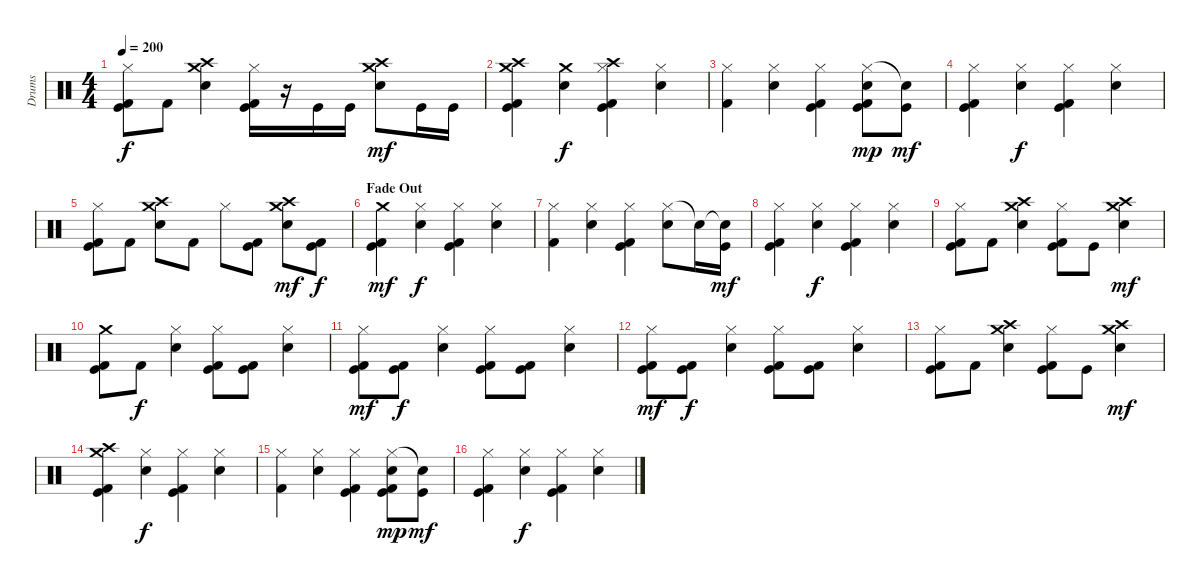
\track ("Drums" "Drums") {instrument percussion}
\staff {score}
\articulation defaults
\ts (4 4)
\tempo 200
\clef neutral
\ks c
("Hi-Hat (closed)" "Kick (hit)" "Kick (hit) 2").8{dy f} "Kick (hit) 2".8 ("Crash high (hit)" "Crash medium (hit)" "Snare (hit) 2").4 ("Hi-Hat (closed)" "Kick (hit)" "Kick (hit) 2").16 r.16 "Kick (hit)".16 "Kick (hit)".16 ("Crash high (hit)" "Crash medium (hit)" "Snare (hit) 2").8{dy mf} "Kick (hit)".16 "Kick (hit)".16 |
("Crash high (hit)" "Crash medium (hit)" "Kick (hit)" "Kick (hit) 2").4 ("Crash medium (hit)" "Snare (hit) 2").4{dy f} ("Crash high (hit)" "Hi-Hat (closed)" "Kick (hit)" "Kick (hit) 2").4 ("Hi-Hat (closed)" "Snare (hit) 2").4 |
("Hi-Hat (closed)" "Kick (hit) 2").4 ("Hi-Hat (closed)" "Snare (hit) 2").4 ("Hi-Hat (closed)" "Kick (hit)" "Kick (hit) 2").4 ("Hi-Hat (closed)" "Snare (hit) 2" "Kick (hit)" "Kick (hit) 2").8{dy mp} ("Snare (hit)"{t} "Kick (hit)").8{dy mf} |
("Hi-Hat (closed)" "Kick (hit)" "Kick (hit) 2").4 ("Hi-Hat (closed)" "Snare (hit) 2").4{dy f} ("Hi-Hat (closed)" "Kick (hit)" "Kick (hit) 2").4 ("Hi-Hat (closed)" "Snare (hit) 2").4 |
("Hi-Hat (closed)" "Kick (hit)" "Kick (hit) 2").8 "Kick (hit) 2".8 ("Crash high (hit)" "Crash medium (hit)" "Snare (hit) 2").8 "Kick (hit) 2".8 "Hi-Hat (closed)".8 ("Kick (hit)" "Kick (hit) 2").8 ("Crash high (hit)" "Crash medium (hit)" "Snare (hit) 2").8{dy mf} ("Kick (hit)" "Kick (hit) 2").8{dy f} |
\section ("" "Fade Out")
("Crash medium (hit)" "Kick (hit)" "Kick (hit) 2").4{dy mf volume 14} ("Hi-Hat (closed)" "Snare (hit) 2").4{dy f volume 13} ("Hi-Hat (closed)" "Kick (hit)" "Kick (hit) 2").4 ("Hi-Hat (closed)" "Snare (hit) 2").4 |
("Hi-Hat (closed)" "Kick (hit) 2").4{volume 13} ("Hi-Hat (closed)" "Snare (hit) 2").4 ("Hi-Hat (closed)" "Kick (hit)" "Kick (hit) 2").4 ("Hi-Hat (closed)" "Snare (hit) 2").8 "Snare (hit)"{t}.16 ("Snare (hit)"{t} "Kick (hit)").16{dy mf} |
("Hi-Hat (closed)" "Kick (hit)" "Kick (hit) 2").4{volume 13} ("Hi-Hat (closed)" "Snare (hit) 2").4{dy f volume 12} ("Hi-Hat (closed)" "Kick (hit)" "Kick (hit) 2").4 ("Hi-Hat (closed)" "Snare (hit) 2").4 |
("Hi-Hat (closed)" "Kick (hit)" "Kick (hit) 2").8{volume 12} "Kick (hit) 2".8 ("Crash high (hit)" "Crash medium (hit)" "Snare (hit) 2").4 ("Hi-Hat (closed)" "Kick (hit)" "Kick (hit) 2").8 "Kick (hit)".8 ("Crash high (hit)" "Crash medium (hit)" "Snare (hit) 2").4{dy mf} |
("Crash medium (hit)" "Kick (hit)" "Kick (hit) 2").8{volume 12} "Kick (hit) 2".8{dy f} ("Hi-Hat (closed)" "Snare (hit) 2").4{volume 11} ("Hi-Hat (closed)" "Kick (hit)" "Kick (hit) 2").8 ("Kick (hit)" "Kick (hit) 2").8 ("Hi-Hat (closed)" "Snare (hit) 2").4 |
("Hi-Hat (closed)" "Kick (hit)" "Kick (hit) 2").8{dy mf volume 11} ("Kick (hit)" "Kick (hit) 2").8{dy f} ("Hi-Hat (closed)" "Snare (hit) 2").4{volume 10} ("Hi-Hat (closed)" "Kick (hit)" "Kick (hit) 2").8 ("Kick (hit)" "Kick (hit) 2").8 ("Hi-Hat (closed)" "Snare (hit) 2").4 |
("Hi-Hat (closed)" "Kick (hit)" "Kick (hit) 2").8{dy mf volume 10} ("Kick (hit)" "Kick (hit) 2").8{dy f} ("Hi-Hat (closed)" "Snare (hit) 2").4{volume 9} ("Hi-Hat (closed)" "Kick (hit)" "Kick (hit) 2").8 ("Kick (hit)" "Kick (hit) 2").8 ("Hi-Hat (closed)" "Snare (hit) 2").4 |
("Hi-Hat (closed)" "Kick (hit)" "Kick (hit) 2").8{volume 9} "Kick (hit) 2".8 ("Crash high (hit)" "Crash medium (hit)" "Snare (hit) 2").4{volume 8} ("Hi-Hat (closed)" "Kick (hit)" "Kick (hit) 2").8 "Kick (hit)".8 ("Crash high (hit)" "Crash medium (hit)" "Snare (hit) 2").4{dy mf} |
("Crash high (hit)" "Crash medium (hit)" "Kick (hit)" "Kick (hit) 2").4 ("Hi-Hat (closed)" "Snare (hit) 2").4{dy f} ("Hi-Hat (closed)" "Kick (hit)" "Kick (hit) 2").4 ("Hi-Hat (closed)" "Snare (hit) 2").4 |
("Hi-Hat (closed)" "Kick (hit) 2").4 ("Hi-Hat (closed)" "Snare (hit) 2").4 ("Hi-Hat (closed)" "Kick (hit)" "Kick (hit) 2").4 ("Hi-Hat (closed)" "Snare (hit) 2" "Kick (hit)" "Kick (hit) 2").8{dy mp} ("Snare (hit)"{t} "Kick (hit)").8{dy mf} |
("Hi-Hat (closed)" "Kick (hit)" "Kick (hit) 2").4 ("Hi-Hat (closed)" "Snare (hit) 2").4{dy f} ("Hi-Hat (closed)" "Kick (hit)" "Kick (hit) 2").4 ("Hi-Hat (closed)" "Snare (hit) 2").4
